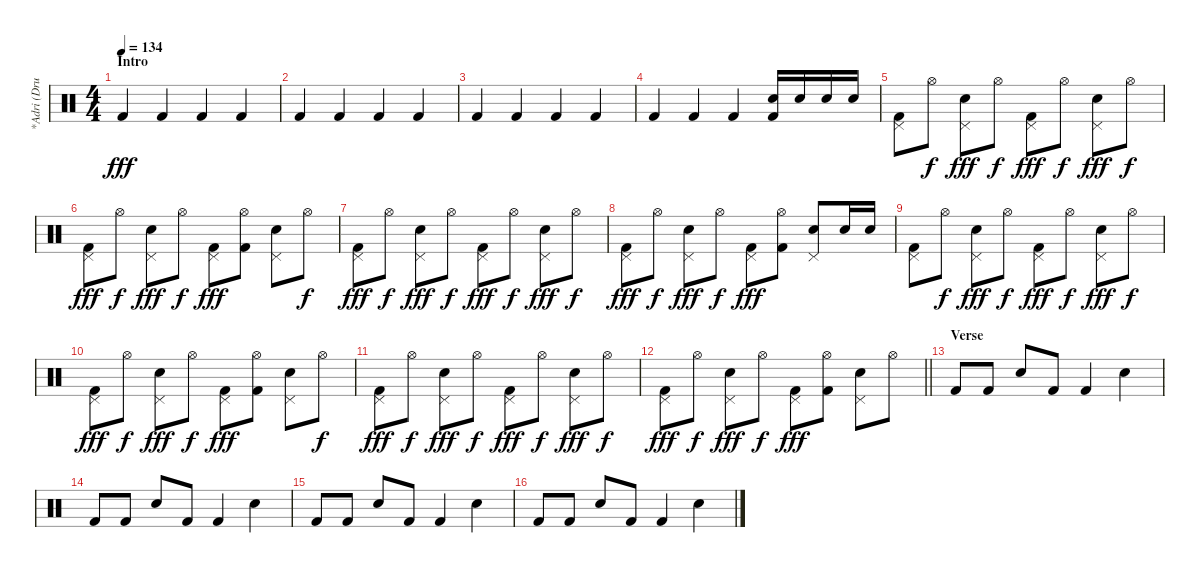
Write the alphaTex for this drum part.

\track ("*Adri (Drum)" "*Adri (Dru") {instrument percussion}
\staff {score}
\articulation defaults
\ts (4 4)
\section ("" "Intro")
\tempo 134
\clef neutral
\ks c "Kick (hit) 2".4{dy fff} "Kick (hit) 2".4 "Kick (hit) 2".4 "Kick (hit) 2".4
|
"Kick (hit) 2".4 "Kick (hit) 2".4 "Kick (hit) 2".4 "Kick (hit) 2".4 |
"Kick (hit) 2".4 "Kick (hit) 2".4 "Kick (hit) 2".4 "Kick (hit) 2".4 |
"Kick (hit) 2".4 "Kick (hit) 2".4 "Kick (hit) 2".4 ("Snare (hit) 2" "Kick (hit) 2").16 "Snare (hit) 2".16 "Snare (hit) 2".16 "Snare (hit) 2".16 |
("Pedal Hi-Hat (hit)" "Kick (hit) 2").8 "Hi-Hat (open)".8{dy f} ("Pedal Hi-Hat (hit)" "Snare (hit) 2").8{dy fff} "Hi-Hat (open)".8{dy f} ("Pedal Hi-Hat (hit)" "Kick (hit) 2").8{dy fff} "Hi-Hat (open)".8{dy f} ("Pedal Hi-Hat (hit)" "Snare (hit) 2").8{dy fff} "Hi-Hat (open)".8{dy f} |
("Pedal Hi-Hat (hit)" "Kick (hit) 2").8{dy fff} "Hi-Hat (open)".8{dy f} ("Pedal Hi-Hat (hit)" "Snare (hit) 2").8{dy fff} "Hi-Hat (open)".8{dy f} ("Pedal Hi-Hat (hit)" "Kick (hit) 2").8{dy fff} ("Hi-Hat (open)" "Kick (hit) 2").8 ("Pedal Hi-Hat (hit)" "Snare (hit) 2").8 "Hi-Hat (open)".8{dy f} |
("Pedal Hi-Hat (hit)" "Kick (hit) 2").8{dy fff} "Hi-Hat (open)".8{dy f} ("Pedal Hi-Hat (hit)" "Snare (hit) 2").8{dy fff} "Hi-Hat (open)".8{dy f} ("Pedal Hi-Hat (hit)" "Kick (hit) 2").8{dy fff} "Hi-Hat (open)".8{dy f} ("Pedal Hi-Hat (hit)" "Snare (hit) 2").8{dy fff} "Hi-Hat (open)".8{dy f} |
("Pedal Hi-Hat (hit)" "Kick (hit) 2").8{dy fff} "Hi-Hat (open)".8{dy f} ("Pedal Hi-Hat (hit)" "Snare (hit) 2").8{dy fff} "Hi-Hat (open)".8{dy f} ("Pedal Hi-Hat (hit)" "Kick (hit) 2").8{dy fff} ("Hi-Hat (open)" "Kick (hit) 2").8 ("Pedal Hi-Hat (hit)" "Snare (hit) 2").8 "Snare (hit) 2".16 "Snare (hit) 2".16 |
("Pedal Hi-Hat (hit)" "Kick (hit) 2").8 "Hi-Hat (open)".8{dy f} ("Pedal Hi-Hat (hit)" "Snare (hit) 2").8{dy fff} "Hi-Hat (open)".8{dy f} ("Pedal Hi-Hat (hit)" "Kick (hit) 2").8{dy fff} "Hi-Hat (open)".8{dy f} ("Pedal Hi-Hat (hit)" "Snare (hit) 2").8{dy fff} "Hi-Hat (open)".8{dy f} |
("Pedal Hi-Hat (hit)" "Kick (hit) 2").8{dy fff} "Hi-Hat (open)".8{dy f} ("Pedal Hi-Hat (hit)" "Snare (hit) 2").8{dy fff} "Hi-Hat (open)".8{dy f} ("Pedal Hi-Hat (hit)" "Kick (hit) 2").8{dy fff} ("Hi-Hat (open)" "Kick (hit) 2").8 ("Pedal Hi-Hat (hit)" "Snare (hit) 2").8 "Hi-Hat (open)".8{dy f} |
("Pedal Hi-Hat (hit)" "Kick (hit) 2").8{dy fff} "Hi-Hat (open)".8{dy f} ("Pedal Hi-Hat (hit)" "Snare (hit) 2").8{dy fff} "Hi-Hat (open)".8{dy f} ("Pedal Hi-Hat (hit)" "Kick (hit) 2").8{dy fff} "Hi-Hat (open)".8{dy f} ("Pedal Hi-Hat (hit)" "Snare (hit) 2").8{dy fff} "Hi-Hat (open)".8{dy f} |
\barLineRight lightlight
("Pedal Hi-Hat (hit)" "Kick (hit) 2").8{dy fff} "Hi-Hat (open)".8{dy f} ("Pedal Hi-Hat (hit)" "Snare (hit) 2").8{dy fff} "Hi-Hat (open)".8{dy f} ("Pedal Hi-Hat (hit)" "Kick (hit) 2").8{dy fff} ("Hi-Hat (open)" "Kick (hit) 2").8 ("Pedal Hi-Hat (hit)" "Snare (hit) 2").8 "Hi-Hat (open)".8 |
\section ("" "Verse")
"Kick (hit) 2".8 "Kick (hit) 2".8 "Snare (hit) 2".8 "Kick (hit) 2".8 "Kick (hit) 2".4 "Snare (hit) 2".4 |
"Kick (hit) 2".8 "Kick (hit) 2".8 "Snare (hit) 2".8 "Kick (hit) 2".8 "Kick (hit) 2".4 "Snare (hit) 2".4 |
"Kick (hit) 2".8 "Kick (hit) 2".8 "Snare (hit) 2".8 "Kick (hit) 2".8 "Kick (hit) 2".4 "Snare (hit) 2".4 |
"Kick (hit) 2".8 "Kick (hit) 2".8 "Snare (hit) 2".8 "Kick (hit) 2".8 "Kick (hit) 2".4 "Snare (hit) 2".4
